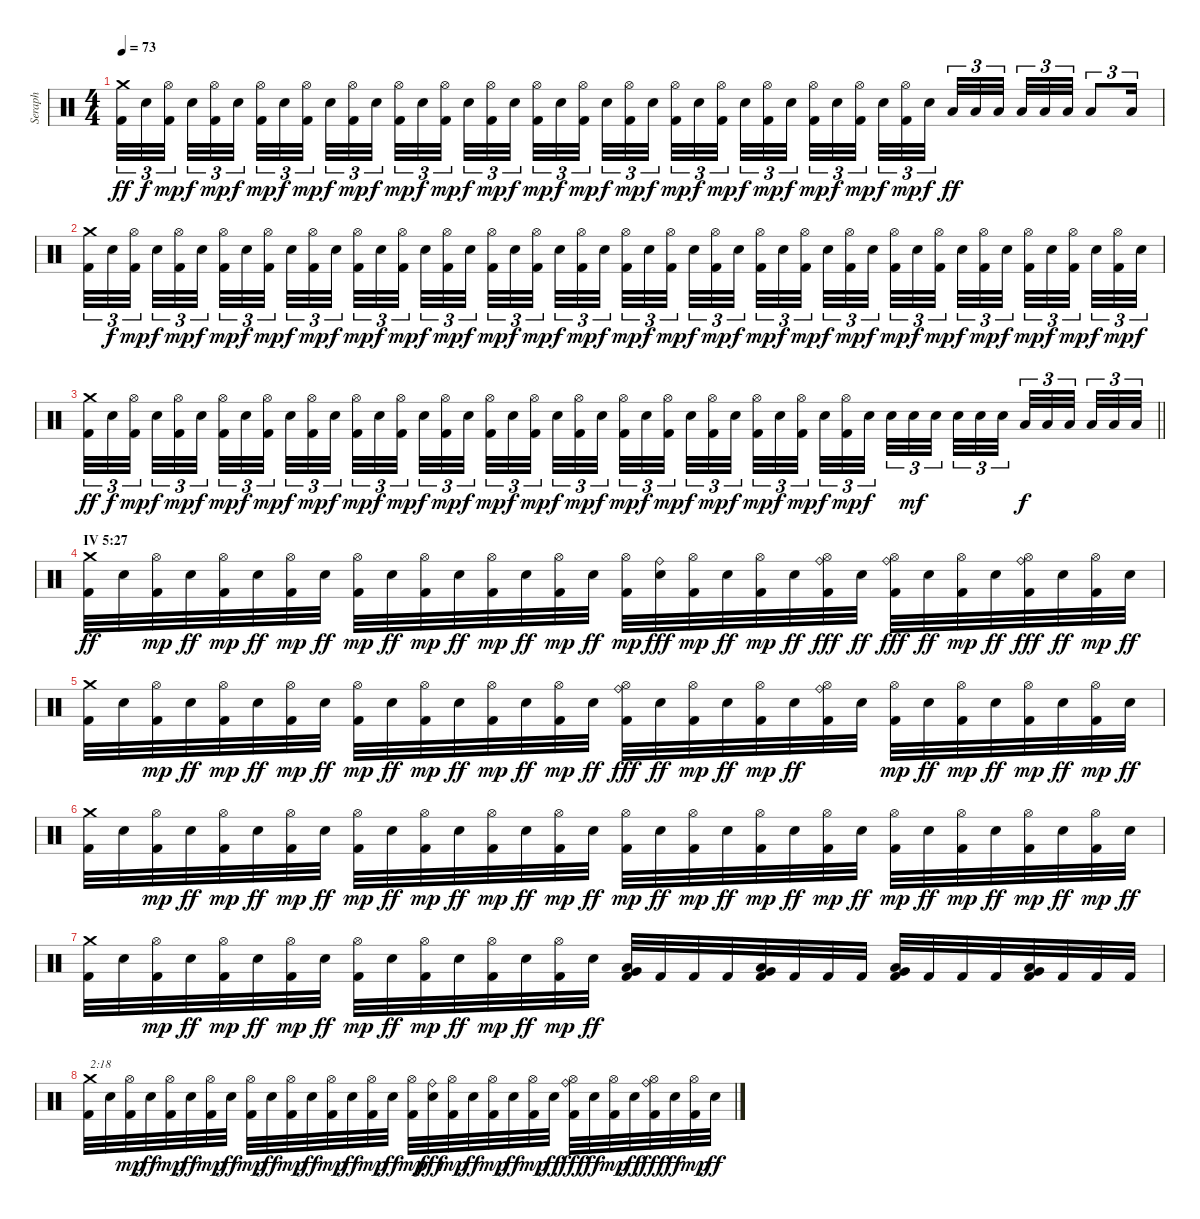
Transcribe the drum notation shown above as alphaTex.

\track ("Seraph" "Seraph") {instrument percussion}
\staff {score}
\articulation defaults
\ts (4 4)
\tempo 73
\clef neutral
\ks c
("Kick (hit) 2" "Crash medium (hit)").32{tu (3 2) dy ff} "Electric Snare (hit)".32{tu (3 2) dy f} ("Kick (hit) 2" "Hi-Hat (open)").32{tu (3 2) dy mp beam splitsecondary} "Electric Snare (hit)".32{tu (3 2) dy f} ("Kick (hit) 2" "Hi-Hat (open)").32{tu (3 2) dy mp} "Electric Snare (hit)".32{tu (3 2) dy f beam splitsecondary} ("Kick (hit) 2" "Hi-Hat (open)").32{tu (3 2) dy mp} "Electric Snare (hit)".32{tu (3 2) dy f} ("Kick (hit) 2" "Hi-Hat (open)").32{tu (3 2) dy mp beam splitsecondary} "Electric Snare (hit)".32{tu (3 2) dy f} ("Kick (hit) 2" "Hi-Hat (open)").32{tu (3 2) dy mp} "Electric Snare (hit)".32{tu (3 2) dy f} ("Kick (hit) 2" "Hi-Hat (open)").32{tu (3 2) dy mp} "Electric Snare (hit)".32{tu (3 2) dy f} ("Kick (hit) 2" "Hi-Hat (open)").32{tu (3 2) dy mp beam splitsecondary} "Electric Snare (hit)".32{tu (3 2) dy f} ("Kick (hit) 2" "Hi-Hat (open)").32{tu (3 2) dy mp} "Electric Snare (hit)".32{tu (3 2) dy f beam splitsecondary} ("Kick (hit) 2" "Hi-Hat (open)").32{tu (3 2) dy mp} "Electric Snare (hit)".32{tu (3 2) dy f} ("Kick (hit) 2" "Hi-Hat (open)").32{tu (3 2) dy mp beam splitsecondary} "Electric Snare (hit)".32{tu (3 2) dy f} ("Kick (hit) 2" "Hi-Hat (open)").32{tu (3 2) dy mp} "Electric Snare (hit)".32{tu (3 2) dy f} ("Kick (hit) 2" "Hi-Hat (open)").32{tu (3 2) dy mp} "Electric Snare (hit)".32{tu (3 2) dy f} ("Kick (hit) 2" "Hi-Hat (open)").32{tu (3 2) dy mp beam splitsecondary} "Electric Snare (hit)".32{tu (3 2) dy f} ("Kick (hit) 2" "Hi-Hat (open)").32{tu (3 2) dy mp} "Electric Snare (hit)".32{tu (3 2) dy f beam splitsecondary} ("Kick (hit) 2" "Hi-Hat (open)").32{tu (3 2) dy mp} "Electric Snare (hit)".32{tu (3 2) dy f} ("Kick (hit) 2" "Hi-Hat (open)").32{tu (3 2) dy mp beam splitsecondary} "Electric Snare (hit)".32{tu (3 2) dy f} ("Kick (hit) 2" "Hi-Hat (open)").32{tu (3 2) dy mp} "Electric Snare (hit)".32{tu (3 2) dy f} "Low Tom (hit)".32{tu (3 2) dy ff} "Low Tom (hit)".32{tu (3 2)} "Low Tom (hit)".32{tu (3 2) beam splitsecondary} "Low Tom (hit)".32{tu (3 2)} "Low Tom (hit)".32{tu (3 2)} "Low Tom (hit)".32{tu (3 2)} "Low Floor Tom (hit)".8{tu (3 2)} "Low Tom (hit)".16{tu (3 2)} |
("Kick (hit) 2" "Crash medium (hit)").32{tu (3 2)} "Electric Snare (hit)".32{tu (3 2) dy f} ("Kick (hit) 2" "Hi-Hat (open)").32{tu (3 2) dy mp beam splitsecondary} "Electric Snare (hit)".32{tu (3 2) dy f} ("Kick (hit) 2" "Hi-Hat (open)").32{tu (3 2) dy mp} "Electric Snare (hit)".32{tu (3 2) dy f beam splitsecondary} ("Kick (hit) 2" "Hi-Hat (open)").32{tu (3 2) dy mp} "Electric Snare (hit)".32{tu (3 2) dy f} ("Kick (hit) 2" "Hi-Hat (open)").32{tu (3 2) dy mp beam splitsecondary} "Electric Snare (hit)".32{tu (3 2) dy f} ("Kick (hit) 2" "Hi-Hat (open)").32{tu (3 2) dy mp} "Electric Snare (hit)".32{tu (3 2) dy f} ("Kick (hit) 2" "Hi-Hat (open)").32{tu (3 2) dy mp} "Electric Snare (hit)".32{tu (3 2) dy f} ("Kick (hit) 2" "Hi-Hat (open)").32{tu (3 2) dy mp beam splitsecondary} "Electric Snare (hit)".32{tu (3 2) dy f} ("Kick (hit) 2" "Hi-Hat (open)").32{tu (3 2) dy mp} "Electric Snare (hit)".32{tu (3 2) dy f beam splitsecondary} ("Kick (hit) 2" "Hi-Hat (open)").32{tu (3 2) dy mp} "Electric Snare (hit)".32{tu (3 2) dy f} ("Kick (hit) 2" "Hi-Hat (open)").32{tu (3 2) dy mp beam splitsecondary} "Electric Snare (hit)".32{tu (3 2) dy f} ("Kick (hit) 2" "Hi-Hat (open)").32{tu (3 2) dy mp} "Electric Snare (hit)".32{tu (3 2) dy f} ("Kick (hit) 2" "Hi-Hat (open)").32{tu (3 2) dy mp} "Electric Snare (hit)".32{tu (3 2) dy f} ("Kick (hit) 2" "Hi-Hat (open)").32{tu (3 2) dy mp beam splitsecondary} "Electric Snare (hit)".32{tu (3 2) dy f} ("Kick (hit) 2" "Hi-Hat (open)").32{tu (3 2) dy mp} "Electric Snare (hit)".32{tu (3 2) dy f beam splitsecondary} ("Kick (hit) 2" "Hi-Hat (open)").32{tu (3 2) dy mp} "Electric Snare (hit)".32{tu (3 2) dy f} ("Kick (hit) 2" "Hi-Hat (open)").32{tu (3 2) dy mp beam splitsecondary} "Electric Snare (hit)".32{tu (3 2) dy f} ("Kick (hit) 2" "Hi-Hat (open)").32{tu (3 2) dy mp} "Electric Snare (hit)".32{tu (3 2) dy f} ("Kick (hit) 2" "Hi-Hat (open)").32{tu (3 2) dy mp} "Electric Snare (hit)".32{tu (3 2) dy f} ("Kick (hit) 2" "Hi-Hat (open)").32{tu (3 2) dy mp beam splitsecondary} "Electric Snare (hit)".32{tu (3 2) dy f} ("Kick (hit) 2" "Hi-Hat (open)").32{tu (3 2) dy mp} "Electric Snare (hit)".32{tu (3 2) dy f beam splitsecondary} ("Kick (hit) 2" "Hi-Hat (open)").32{tu (3 2) dy mp} "Electric Snare (hit)".32{tu (3 2) dy f} ("Kick (hit) 2" "Hi-Hat (open)").32{tu (3 2) dy mp beam splitsecondary} "Electric Snare (hit)".32{tu (3 2) dy f} ("Kick (hit) 2" "Hi-Hat (open)").32{tu (3 2) dy mp} "Electric Snare (hit)".32{tu (3 2) dy f} |
\barLineRight lightlight
("Kick (hit) 2" "Crash medium (hit)").32{tu (3 2) dy ff} "Electric Snare (hit)".32{tu (3 2) dy f} ("Kick (hit) 2" "Hi-Hat (open)").32{tu (3 2) dy mp beam splitsecondary} "Electric Snare (hit)".32{tu (3 2) dy f} ("Kick (hit) 2" "Hi-Hat (open)").32{tu (3 2) dy mp} "Electric Snare (hit)".32{tu (3 2) dy f beam splitsecondary} ("Kick (hit) 2" "Hi-Hat (open)").32{tu (3 2) dy mp} "Electric Snare (hit)".32{tu (3 2) dy f} ("Kick (hit) 2" "Hi-Hat (open)").32{tu (3 2) dy mp beam splitsecondary} "Electric Snare (hit)".32{tu (3 2) dy f} ("Kick (hit) 2" "Hi-Hat (open)").32{tu (3 2) dy mp} "Electric Snare (hit)".32{tu (3 2) dy f} ("Kick (hit) 2" "Hi-Hat (open)").32{tu (3 2) dy mp} "Electric Snare (hit)".32{tu (3 2) dy f} ("Kick (hit) 2" "Hi-Hat (open)").32{tu (3 2) dy mp beam splitsecondary} "Electric Snare (hit)".32{tu (3 2) dy f} ("Kick (hit) 2" "Hi-Hat (open)").32{tu (3 2) dy mp} "Electric Snare (hit)".32{tu (3 2) dy f beam splitsecondary} ("Kick (hit) 2" "Hi-Hat (open)").32{tu (3 2) dy mp} "Electric Snare (hit)".32{tu (3 2) dy f} ("Kick (hit) 2" "Hi-Hat (open)").32{tu (3 2) dy mp beam splitsecondary} "Electric Snare (hit)".32{tu (3 2) dy f} ("Kick (hit) 2" "Hi-Hat (open)").32{tu (3 2) dy mp} "Electric Snare (hit)".32{tu (3 2) dy f} ("Kick (hit) 2" "Hi-Hat (open)").32{tu (3 2) dy mp} "Electric Snare (hit)".32{tu (3 2) dy f} ("Kick (hit) 2" "Hi-Hat (open)").32{tu (3 2) dy mp beam splitsecondary} "Electric Snare (hit)".32{tu (3 2) dy f} ("Kick (hit) 2" "Hi-Hat (open)").32{tu (3 2) dy mp} "Electric Snare (hit)".32{tu (3 2) dy f beam splitsecondary} ("Kick (hit) 2" "Hi-Hat (open)").32{tu (3 2) dy mp} "Electric Snare (hit)".32{tu (3 2) dy f} ("Kick (hit) 2" "Hi-Hat (open)").32{tu (3 2) dy mp beam splitsecondary} "Electric Snare (hit)".32{tu (3 2) dy f} ("Kick (hit) 2" "Hi-Hat (open)").32{tu (3 2) dy mp} "Electric Snare (hit)".32{tu (3 2) dy f} "Electric Snare (hit)".32{tu (3 2)} "Electric Snare (hit)".32{tu (3 2) dy mf} "Electric Snare (hit)".32{tu (3 2) beam splitsecondary} "Electric Snare (hit)".32{tu (3 2)} "Electric Snare (hit)".32{tu (3 2)} "Electric Snare (hit)".32{tu (3 2) beam splitsecondary} "Low Tom (hit)".32{tu (3 2) dy f} "Low Tom (hit)".32{tu (3 2)} "Low Tom (hit)".32{tu (3 2) beam splitsecondary} "Low Tom (hit)".32{tu (3 2)} "Low Tom (hit)".32{tu (3 2)} "Low Tom (hit)".32{tu (3 2)} |
\section ("" "IV 5:27")
("Kick (hit) 2" "Crash medium (hit)").32{dy ff} "Electric Snare (hit)".32 ("Kick (hit) 2" "Hi-Hat (open)").32{dy mp} "Electric Snare (hit)".32{dy ff} ("Kick (hit) 2" "Hi-Hat (open)").32{dy mp} "Electric Snare (hit)".32{dy ff} ("Kick (hit) 2" "Hi-Hat (open)").32{dy mp} "Electric Snare (hit)".32{dy ff} ("Kick (hit) 2" "Hi-Hat (open)").32{dy mp} "Electric Snare (hit)".32{dy ff} ("Kick (hit) 2" "Hi-Hat (open)").32{dy mp} "Electric Snare (hit)".32{dy ff} ("Kick (hit) 2" "Hi-Hat (open)").32{dy mp} "Electric Snare (hit)".32{dy ff} ("Kick (hit) 2" "Hi-Hat (open)").32{dy mp} "Electric Snare (hit)".32{dy ff} ("Kick (hit) 2" "Hi-Hat (open)").32{dy mp} ("Electric Snare (hit)" "Ride (bell)").32{dy fff} ("Kick (hit) 2" "Hi-Hat (open)").32{dy mp} "Electric Snare (hit)".32{dy ff} ("Kick (hit) 2" "Hi-Hat (open)").32{dy mp} "Electric Snare (hit)".32{dy ff} ("Kick (hit) 2" "Hi-Hat (open)" "Ride (bell)").32{dy fff} "Electric Snare (hit)".32{dy ff} ("Kick (hit) 2" "Hi-Hat (open)" "Ride (bell)").32{dy fff} "Electric Snare (hit)".32{dy ff} ("Kick (hit) 2" "Hi-Hat (open)").32{dy mp} "Electric Snare (hit)".32{dy ff} ("Kick (hit) 2" "Hi-Hat (open)" "Ride (bell)").32{dy fff} "Electric Snare (hit)".32{dy ff} ("Kick (hit) 2" "Hi-Hat (open)").32{dy mp} "Electric Snare (hit)".32{dy ff} |
("Kick (hit) 2" "Crash medium (hit)").32 "Electric Snare (hit)".32 ("Kick (hit) 2" "Hi-Hat (open)").32{dy mp} "Electric Snare (hit)".32{dy ff} ("Kick (hit) 2" "Hi-Hat (open)").32{dy mp} "Electric Snare (hit)".32{dy ff} ("Kick (hit) 2" "Hi-Hat (open)").32{dy mp} "Electric Snare (hit)".32{dy ff} ("Kick (hit) 2" "Hi-Hat (open)").32{dy mp} "Electric Snare (hit)".32{dy ff} ("Kick (hit) 2" "Hi-Hat (open)").32{dy mp} "Electric Snare (hit)".32{dy ff} ("Kick (hit) 2" "Hi-Hat (open)").32{dy mp} "Electric Snare (hit)".32{dy ff} ("Kick (hit) 2" "Hi-Hat (open)").32{dy mp} "Electric Snare (hit)".32{dy ff} ("Kick (hit) 2" "Hi-Hat (open)" "Ride (bell)").32{dy fff} "Electric Snare (hit)".32{dy ff} ("Kick (hit) 2" "Hi-Hat (open)").32{dy mp} "Electric Snare (hit)".32{dy ff} ("Kick (hit) 2" "Hi-Hat (open)").32{dy mp} "Electric Snare (hit)".32{dy ff} ("Kick (hit) 2" "Hi-Hat (open)" "Ride (bell)").32 "Electric Snare (hit)".32 ("Kick (hit) 2" "Hi-Hat (open)").32{dy mp} "Electric Snare (hit)".32{dy ff} ("Kick (hit) 2" "Hi-Hat (open)").32{dy mp} "Electric Snare (hit)".32{dy ff} ("Kick (hit) 2" "Hi-Hat (open)").32{dy mp} "Electric Snare (hit)".32{dy ff} ("Kick (hit) 2" "Hi-Hat (open)").32{dy mp} "Electric Snare (hit)".32{dy ff} |
("Kick (hit) 2" "Crash medium (hit)").32 "Electric Snare (hit)".32 ("Kick (hit) 2" "Hi-Hat (open)").32{dy mp} "Electric Snare (hit)".32{dy ff} ("Kick (hit) 2" "Hi-Hat (open)").32{dy mp} "Electric Snare (hit)".32{dy ff} ("Kick (hit) 2" "Hi-Hat (open)").32{dy mp} "Electric Snare (hit)".32{dy ff} ("Kick (hit) 2" "Hi-Hat (open)").32{dy mp} "Electric Snare (hit)".32{dy ff} ("Kick (hit) 2" "Hi-Hat (open)").32{dy mp} "Electric Snare (hit)".32{dy ff} ("Kick (hit) 2" "Hi-Hat (open)").32{dy mp} "Electric Snare (hit)".32{dy ff} ("Kick (hit) 2" "Hi-Hat (open)").32{dy mp} "Electric Snare (hit)".32{dy ff} ("Kick (hit) 2" "Hi-Hat (open)").32{dy mp} "Electric Snare (hit)".32{dy ff} ("Kick (hit) 2" "Hi-Hat (open)").32{dy mp} "Electric Snare (hit)".32{dy ff} ("Kick (hit) 2" "Hi-Hat (open)").32{dy mp} "Electric Snare (hit)".32{dy ff} ("Kick (hit) 2" "Hi-Hat (open)").32{dy mp} "Electric Snare (hit)".32{dy ff} ("Kick (hit) 2" "Hi-Hat (open)").32{dy mp} "Electric Snare (hit)".32{dy ff} ("Kick (hit) 2" "Hi-Hat (open)").32{dy mp} "Electric Snare (hit)".32{dy ff} ("Kick (hit) 2" "Hi-Hat (open)").32{dy mp} "Electric Snare (hit)".32{dy ff} ("Kick (hit) 2" "Hi-Hat (open)").32{dy mp} "Electric Snare (hit)".32{dy ff} |
("Kick (hit) 2" "Crash medium (hit)").32 "Electric Snare (hit)".32 ("Kick (hit) 2" "Hi-Hat (open)").32{dy mp} "Electric Snare (hit)".32{dy ff} ("Kick (hit) 2" "Hi-Hat (open)").32{dy mp} "Electric Snare (hit)".32{dy ff} ("Kick (hit) 2" "Hi-Hat (open)").32{dy mp} "Electric Snare (hit)".32{dy ff} ("Kick (hit) 2" "Hi-Hat (open)").32{dy mp} "Electric Snare (hit)".32{dy ff} ("Kick (hit) 2" "Hi-Hat (open)").32{dy mp} "Electric Snare (hit)".32{dy ff} ("Kick (hit) 2" "Hi-Hat (open)").32{dy mp} "Electric Snare (hit)".32{dy ff} ("Kick (hit) 2" "Hi-Hat (open)").32{dy mp} "Electric Snare (hit)".32{dy ff} ("Kick (hit) 2" "Very Low Tom (hit)" "Low Floor Tom (hit)").32 "Kick (hit) 2".32 "Kick (hit) 2".32 "Kick (hit) 2".32 ("Kick (hit) 2" "Very Low Tom (hit)" "Low Tom (hit)").32 "Kick (hit) 2".32 "Kick (hit) 2".32 "Kick (hit) 2".32 ("Kick (hit) 2" "Very Low Tom (hit)" "Low Floor Tom (hit)").32 "Kick (hit) 2".32 "Kick (hit) 2".32 "Kick (hit) 2".32 ("Kick (hit) 2" "Very Low Tom (hit)" "Low Tom (hit)").32 "Kick (hit) 2".32 "Kick (hit) 2".32 "Kick (hit) 2".32 |
("Kick (hit) 2" "Crash medium (hit)").32{txt "2:18"} "Electric Snare (hit)".32 ("Kick (hit) 2" "Hi-Hat (open)").32{dy mp} "Electric Snare (hit)".32{dy ff} ("Kick (hit) 2" "Hi-Hat (open)").32{dy mp} "Electric Snare (hit)".32{dy ff} ("Kick (hit) 2" "Hi-Hat (open)").32{dy mp} "Electric Snare (hit)".32{dy ff} ("Kick (hit) 2" "Hi-Hat (open)").32{dy mp} "Electric Snare (hit)".32{dy ff} ("Kick (hit) 2" "Hi-Hat (open)").32{dy mp} "Electric Snare (hit)".32{dy ff} ("Kick (hit) 2" "Hi-Hat (open)").32{dy mp} "Electric Snare (hit)".32{dy ff} ("Kick (hit) 2" "Hi-Hat (open)").32{dy mp} "Electric Snare (hit)".32{dy ff} ("Kick (hit) 2" "Hi-Hat (open)").32{dy mp} ("Electric Snare (hit)" "Ride (bell)").32{dy fff} ("Kick (hit) 2" "Hi-Hat (open)").32{dy mp} "Electric Snare (hit)".32{dy ff} ("Kick (hit) 2" "Hi-Hat (open)").32{dy mp} "Electric Snare (hit)".32{dy ff} ("Kick (hit) 2" "Hi-Hat (open)").32{dy mp} "Electric Snare (hit)".32{dy ff} ("Kick (hit) 2" "Hi-Hat (open)" "Ride (bell)").32{dy fff} "Electric Snare (hit)".32{dy ff} ("Kick (hit) 2" "Hi-Hat (open)").32{dy mp} "Electric Snare (hit)".32{dy ff} ("Kick (hit) 2" "Hi-Hat (open)" "Ride (bell)").32{dy fff} "Electric Snare (hit)".32{dy ff} ("Kick (hit) 2" "Hi-Hat (open)").32{dy mp} "Electric Snare (hit)".32{dy ff}
